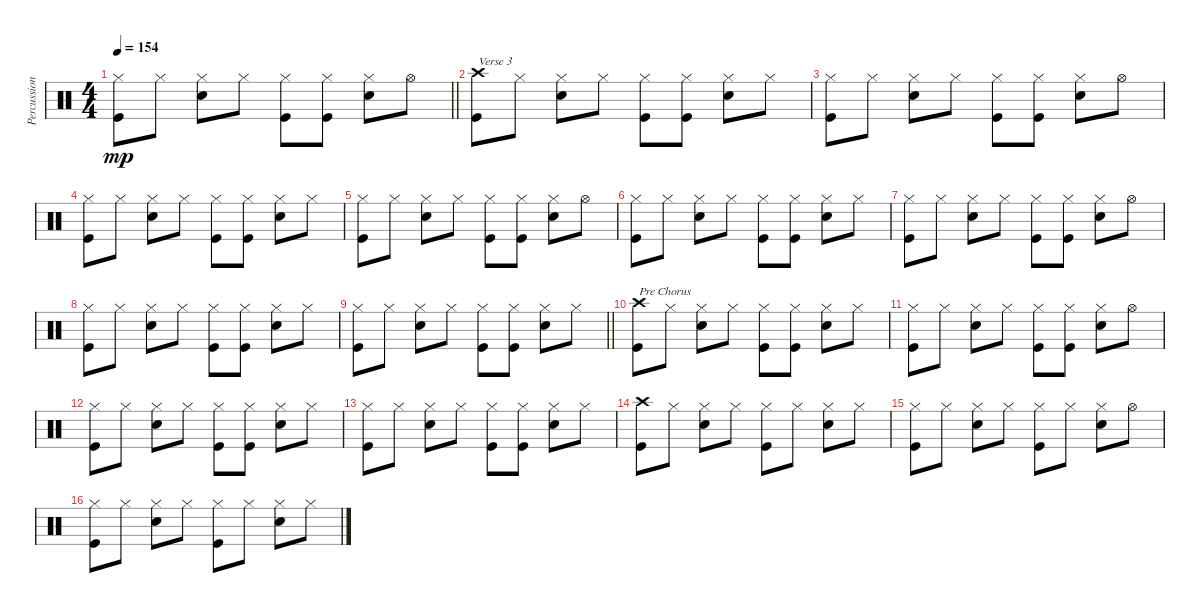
\track ("Percussion" "Percussion") {instrument percussion}
\staff {score}
\articulation defaults
\ts (4 4)
\tempo 154
\clef neutral
\barLineRight lightlight
\ks c
("Hi-Hat (closed)" "Kick (hit)").8{dy mp} "Hi-Hat (closed)".8 ("Hi-Hat (closed)" "Electric Snare (hit)").8 "Hi-Hat (closed)".8 ("Hi-Hat (closed)" "Kick (hit)").8 ("Hi-Hat (closed)" "Kick (hit)").8 ("Hi-Hat (closed)" "Electric Snare (hit)").8 "Hi-Hat (open)".8 |
("Crash high (hit)" "Kick (hit)").8{txt "Verse 3"} "Hi-Hat (closed)".8 ("Hi-Hat (closed)" "Electric Snare (hit)").8 "Hi-Hat (closed)".8 ("Hi-Hat (closed)" "Kick (hit)").8 ("Hi-Hat (closed)" "Kick (hit)").8 ("Hi-Hat (closed)" "Electric Snare (hit)").8 "Hi-Hat (closed)".8 |
("Hi-Hat (closed)" "Kick (hit)").8 "Hi-Hat (closed)".8 ("Hi-Hat (closed)" "Electric Snare (hit)").8 "Hi-Hat (closed)".8 ("Hi-Hat (closed)" "Kick (hit)").8 ("Hi-Hat (closed)" "Kick (hit)").8 ("Hi-Hat (closed)" "Electric Snare (hit)").8 "Hi-Hat (open)".8 |
("Hi-Hat (closed)" "Kick (hit)").8 "Hi-Hat (closed)".8 ("Hi-Hat (closed)" "Electric Snare (hit)").8 "Hi-Hat (closed)".8 ("Hi-Hat (closed)" "Kick (hit)").8 ("Hi-Hat (closed)" "Kick (hit)").8 ("Hi-Hat (closed)" "Electric Snare (hit)").8 "Hi-Hat (closed)".8 |
("Hi-Hat (closed)" "Kick (hit)").8 "Hi-Hat (closed)".8 ("Hi-Hat (closed)" "Electric Snare (hit)").8 "Hi-Hat (closed)".8 ("Hi-Hat (closed)" "Kick (hit)").8 ("Hi-Hat (closed)" "Kick (hit)").8 ("Hi-Hat (closed)" "Electric Snare (hit)").8 "Hi-Hat (open)".8 |
("Hi-Hat (closed)" "Kick (hit)").8 "Hi-Hat (closed)".8 ("Hi-Hat (closed)" "Electric Snare (hit)").8 "Hi-Hat (closed)".8 ("Hi-Hat (closed)" "Kick (hit)").8 ("Hi-Hat (closed)" "Kick (hit)").8 ("Hi-Hat (closed)" "Electric Snare (hit)").8 "Hi-Hat (closed)".8 |
("Hi-Hat (closed)" "Kick (hit)").8 "Hi-Hat (closed)".8 ("Hi-Hat (closed)" "Electric Snare (hit)").8 "Hi-Hat (closed)".8 ("Hi-Hat (closed)" "Kick (hit)").8 ("Hi-Hat (closed)" "Kick (hit)").8 ("Hi-Hat (closed)" "Electric Snare (hit)").8 "Hi-Hat (open)".8 |
("Hi-Hat (closed)" "Kick (hit)").8 "Hi-Hat (closed)".8 ("Hi-Hat (closed)" "Electric Snare (hit)").8 "Hi-Hat (closed)".8 ("Hi-Hat (closed)" "Kick (hit)").8 ("Hi-Hat (closed)" "Kick (hit)").8 ("Hi-Hat (closed)" "Electric Snare (hit)").8 "Hi-Hat (closed)".8 |
\barLineRight lightlight
("Hi-Hat (closed)" "Kick (hit)").8 "Hi-Hat (closed)".8 ("Hi-Hat (closed)" "Electric Snare (hit)").8 "Hi-Hat (closed)".8 ("Hi-Hat (closed)" "Kick (hit)").8 ("Hi-Hat (closed)" "Kick (hit)").8 ("Hi-Hat (closed)" "Electric Snare (hit)").8 "Hi-Hat (closed)".8 |
("Crash high (hit)" "Kick (hit)").8{txt "Pre Chorus"} "Hi-Hat (closed)".8 ("Hi-Hat (closed)" "Electric Snare (hit)").8 "Hi-Hat (closed)".8 ("Hi-Hat (closed)" "Kick (hit)").8 ("Hi-Hat (closed)" "Kick (hit)").8 ("Hi-Hat (closed)" "Electric Snare (hit)").8 "Hi-Hat (closed)".8 |
("Hi-Hat (closed)" "Kick (hit)").8 "Hi-Hat (closed)".8 ("Hi-Hat (closed)" "Electric Snare (hit)").8 "Hi-Hat (closed)".8 ("Hi-Hat (closed)" "Kick (hit)").8 ("Hi-Hat (closed)" "Kick (hit)").8 ("Hi-Hat (closed)" "Electric Snare (hit)").8 "Hi-Hat (open)".8 |
("Hi-Hat (closed)" "Kick (hit)").8 "Hi-Hat (closed)".8 ("Hi-Hat (closed)" "Electric Snare (hit)").8 "Hi-Hat (closed)".8 ("Hi-Hat (closed)" "Kick (hit)").8 ("Hi-Hat (closed)" "Kick (hit)").8 ("Hi-Hat (closed)" "Electric Snare (hit)").8 "Hi-Hat (closed)".8 |
("Hi-Hat (closed)" "Kick (hit)").8 "Hi-Hat (closed)".8 ("Hi-Hat (closed)" "Electric Snare (hit)").8 "Hi-Hat (closed)".8 ("Hi-Hat (closed)" "Kick (hit)").8 ("Hi-Hat (closed)" "Kick (hit)").8 ("Hi-Hat (closed)" "Electric Snare (hit)").8 "Hi-Hat (closed)".8 |
("Crash high (hit)" "Kick (hit)").8 "Hi-Hat (closed)".8 ("Hi-Hat (closed)" "Electric Snare (hit)").8 "Hi-Hat (closed)".8 ("Hi-Hat (closed)" "Kick (hit)").8 "Hi-Hat (closed)".8 ("Hi-Hat (closed)" "Electric Snare (hit)").8 "Hi-Hat (closed)".8 |
("Hi-Hat (closed)" "Kick (hit)").8 "Hi-Hat (closed)".8 ("Hi-Hat (closed)" "Electric Snare (hit)").8 "Hi-Hat (closed)".8 ("Hi-Hat (closed)" "Kick (hit)").8 "Hi-Hat (closed)".8 ("Hi-Hat (closed)" "Electric Snare (hit)").8 "Hi-Hat (open)".8 |
("Hi-Hat (closed)" "Kick (hit)").8 "Hi-Hat (closed)".8 ("Hi-Hat (closed)" "Electric Snare (hit)").8 "Hi-Hat (closed)".8 ("Hi-Hat (closed)" "Kick (hit)").8 "Hi-Hat (closed)".8 ("Hi-Hat (closed)" "Electric Snare (hit)").8 "Hi-Hat (closed)".8
